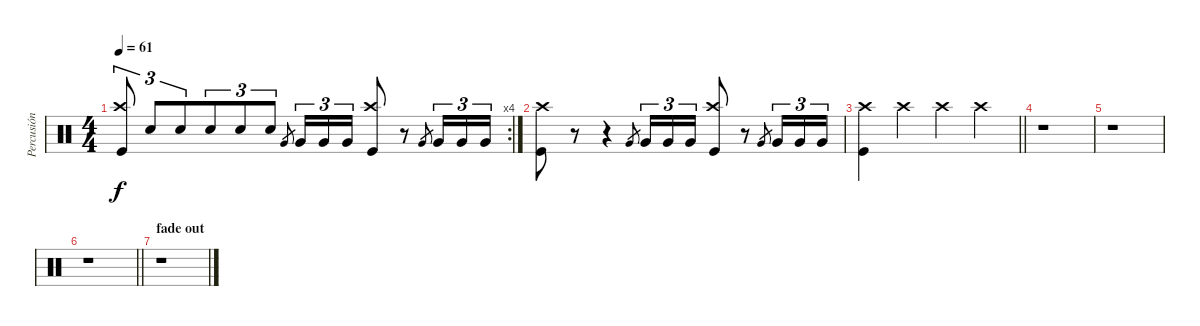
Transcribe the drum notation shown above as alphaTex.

\track ("Percusión" "Percusión") {instrument percussion}
\staff {score}
\articulation defaults
\rc 4
\ts (4 4)
\tempo 61
\clef neutral
\ks c
("Crash high (hit)" "Kick (hit)").8{tu (3 2) dy f beam Up beam split} "Snare (hit) 2".8{tu (3 2) beam Up} "Snare (hit) 2".8{tu (3 2) beam Up beam merge} "Snare (hit) 2".8{tu (3 2) beam Up} "Snare (hit) 2".8{tu (3 2) beam Up beam merge} "Snare (hit) 2".8{tu (3 2) beam Up} "Very Low Tom (hit)".8{gr beam split} "Very Low Tom (hit)".16{tu (3 2) beam Up beam merge} "Very Low Tom (hit)".16{tu (3 2) beam Up beam merge} "Very Low Tom (hit)".16{tu (3 2) beam Up beam split} ("Kick (hit)" "Crash high (hit)").8{beam Up} r.8 "Very Low Tom (hit)".8{gr} "Very Low Tom (hit)".16{tu (3 2)} "Very Low Tom (hit)".16{tu (3 2)} "Very Low Tom (hit)".16{tu (3 2)} |
("Crash high (hit)" "Kick (hit)").8 r.8 r.4 "Very Low Tom (hit)".8{gr} "Very Low Tom (hit)".16{tu (3 2) beam Up beam merge} "Very Low Tom (hit)".16{tu (3 2) beam Up beam merge} "Very Low Tom (hit)".16{tu (3 2) beam Up beam split} ("Kick (hit)" "Crash high (hit)").8{beam Up} r.8 "Very Low Tom (hit)".8{gr} "Very Low Tom (hit)".16{tu (3 2)} "Very Low Tom (hit)".16{tu (3 2)} "Very Low Tom (hit)".16{tu (3 2)} |
\barLineRight lightlight
("Crash high (hit)" "Kick (hit)").4 "Crash high (hit)".4 "Crash high (hit)".4 "Crash high (hit)".4 |
r.1 |
r.1 |
\barLineRight lightlight
r.1 |
\section ("" "fade out")
r.1
